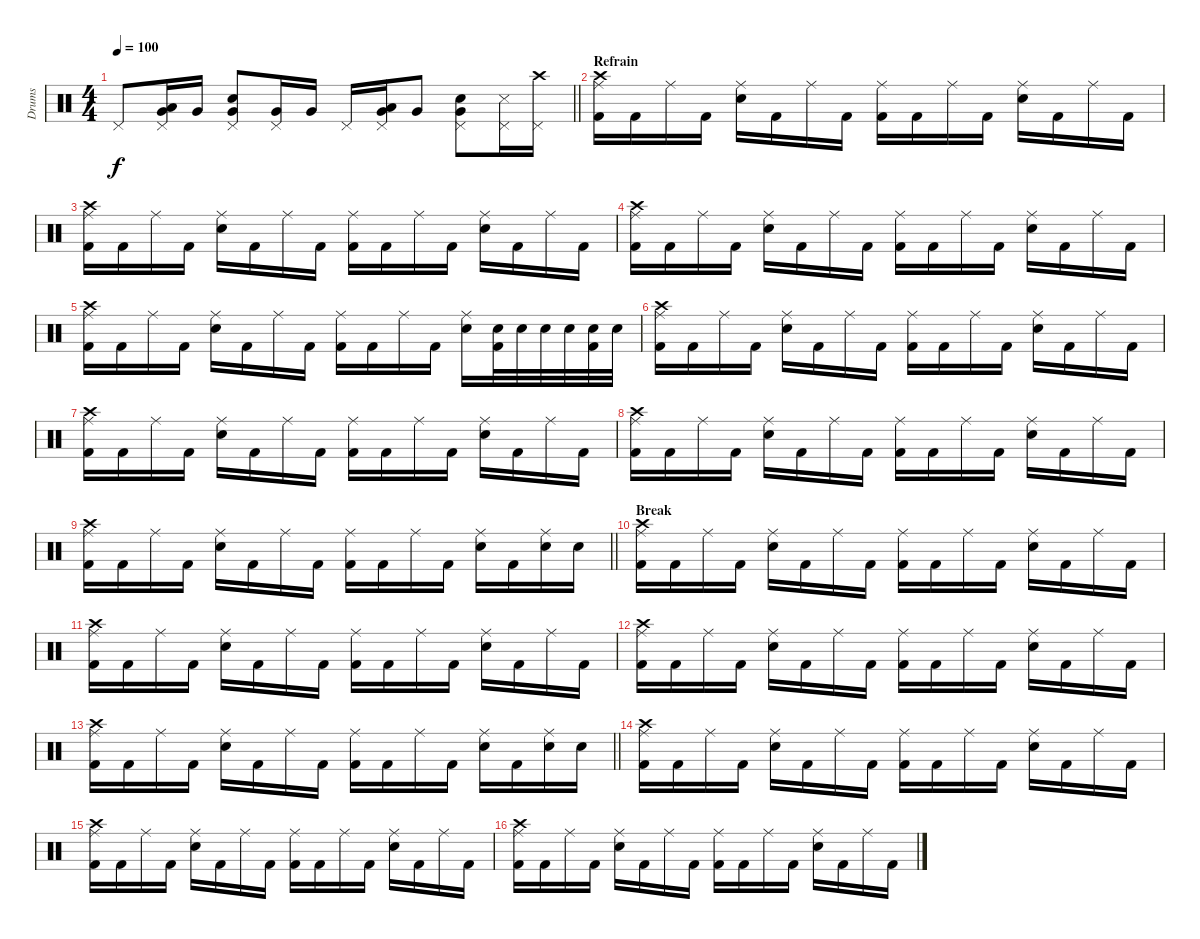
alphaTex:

\track ("Drums" "Drums") {instrument percussion}
\staff {score}
\articulation defaults
\ts (4 4)
\tempo 100
\clef neutral
\barLineRight lightlight
\ks c "Pedal Hi-Hat (hit)".8{dy f}
("Low Floor Tom (hit)" "Very Low Tom (hit)" "Pedal Hi-Hat (hit)").16 "Very Low Tom (hit)".16 ("Snare (hit) 2" "Very Low Tom (hit)" "Pedal Hi-Hat (hit)").8 ("Very Low Tom (hit)" "Pedal Hi-Hat (hit)").16 "Very Low Tom (hit)".16 "Pedal Hi-Hat (hit)".16 ("Low Floor Tom (hit)" "Very Low Tom (hit)" "Pedal Hi-Hat (hit)").16 "Very Low Tom (hit)".8 ("Snare (hit) 2" "Very Low Tom (hit)" "Pedal Hi-Hat (hit)").8 ("Snare (side stick) 3" "Pedal Hi-Hat (hit)").16 ("Crash high (hit)" "Pedal Hi-Hat (hit)").16 |
\section ("" "Refrain")
("Crash high (hit)" "Kick (hit) 2" "Ride (middle)").16 "Kick (hit) 2".16 "Ride (middle)".16 "Kick (hit) 2".16 ("Snare (hit) 2" "Ride (middle)").16 "Kick (hit) 2".16 "Ride (middle)".16 "Kick (hit) 2".16 ("Kick (hit) 2" "Ride (middle)").16 "Kick (hit) 2".16 "Ride (middle)".16 "Kick (hit) 2".16 ("Snare (hit) 2" "Ride (middle)").16 "Kick (hit) 2".16 "Ride (middle)".16 "Kick (hit) 2".16 |
("Crash high (hit)" "Kick (hit) 2" "Ride (middle)").16 "Kick (hit) 2".16 "Ride (middle)".16 "Kick (hit) 2".16 ("Snare (hit) 2" "Ride (middle)").16 "Kick (hit) 2".16 "Ride (middle)".16 "Kick (hit) 2".16 ("Kick (hit) 2" "Ride (middle)").16 "Kick (hit) 2".16 "Ride (middle)".16 "Kick (hit) 2".16 ("Snare (hit) 2" "Ride (middle)").16 "Kick (hit) 2".16 "Ride (middle)".16 "Kick (hit) 2".16 |
("Crash high (hit)" "Kick (hit) 2" "Ride (middle)").16 "Kick (hit) 2".16 "Ride (middle)".16 "Kick (hit) 2".16 ("Snare (hit) 2" "Ride (middle)").16 "Kick (hit) 2".16 "Ride (middle)".16 "Kick (hit) 2".16 ("Kick (hit) 2" "Ride (middle)").16 "Kick (hit) 2".16 "Ride (middle)".16 "Kick (hit) 2".16 ("Snare (hit) 2" "Ride (middle)").16 "Kick (hit) 2".16 "Ride (middle)".16 "Kick (hit) 2".16 |
("Crash high (hit)" "Kick (hit) 2" "Ride (middle)").16 "Kick (hit) 2".16 "Ride (middle)".16 "Kick (hit) 2".16 ("Snare (hit) 2" "Ride (middle)").16 "Kick (hit) 2".16 "Ride (middle)".16 "Kick (hit) 2".16 ("Kick (hit) 2" "Ride (middle)").16 "Kick (hit) 2".16 "Ride (middle)".16 "Kick (hit) 2".16 ("Snare (hit) 2" "Ride (middle)").16 ("Snare (hit) 2" "Kick (hit) 2").32 "Snare (hit) 2".32 "Snare (hit) 2".32 "Snare (hit) 2".32 ("Snare (hit) 2" "Kick (hit) 2").32 "Snare (hit) 2".32 |
("Crash high (hit)" "Kick (hit) 2" "Ride (middle)").16 "Kick (hit) 2".16 "Ride (middle)".16 "Kick (hit) 2".16 ("Snare (hit) 2" "Ride (middle)").16 "Kick (hit) 2".16 "Ride (middle)".16 "Kick (hit) 2".16 ("Kick (hit) 2" "Ride (middle)").16 "Kick (hit) 2".16 "Ride (middle)".16 "Kick (hit) 2".16 ("Snare (hit) 2" "Ride (middle)").16 "Kick (hit) 2".16 "Ride (middle)".16 "Kick (hit) 2".16 |
("Crash high (hit)" "Kick (hit) 2" "Ride (middle)").16 "Kick (hit) 2".16 "Ride (middle)".16 "Kick (hit) 2".16 ("Snare (hit) 2" "Ride (middle)").16 "Kick (hit) 2".16 "Ride (middle)".16 "Kick (hit) 2".16 ("Kick (hit) 2" "Ride (middle)").16 "Kick (hit) 2".16 "Ride (middle)".16 "Kick (hit) 2".16 ("Snare (hit) 2" "Ride (middle)").16 "Kick (hit) 2".16 "Ride (middle)".16 "Kick (hit) 2".16 |
("Crash high (hit)" "Kick (hit) 2" "Ride (middle)").16 "Kick (hit) 2".16 "Ride (middle)".16 "Kick (hit) 2".16 ("Snare (hit) 2" "Ride (middle)").16 "Kick (hit) 2".16 "Ride (middle)".16 "Kick (hit) 2".16 ("Kick (hit) 2" "Ride (middle)").16 "Kick (hit) 2".16 "Ride (middle)".16 "Kick (hit) 2".16 ("Snare (hit) 2" "Ride (middle)").16 "Kick (hit) 2".16 "Ride (middle)".16 "Kick (hit) 2".16 |
\barLineRight lightlight
("Crash high (hit)" "Kick (hit) 2" "Ride (middle)").16 "Kick (hit) 2".16 "Ride (middle)".16 "Kick (hit) 2".16 ("Snare (hit) 2" "Ride (middle)").16 "Kick (hit) 2".16 "Ride (middle)".16 "Kick (hit) 2".16 ("Kick (hit) 2" "Ride (middle)").16 "Kick (hit) 2".16 "Ride (middle)".16 "Kick (hit) 2".16 ("Snare (hit) 2" "Ride (middle)").16 "Kick (hit) 2".16 ("Snare (hit) 2" "Ride (middle)").16 "Snare (hit) 2".16 |
\section ("" "Break")
("Crash high (hit)" "Kick (hit) 2" "Ride (middle)").16 "Kick (hit) 2".16 "Ride (middle)".16 "Kick (hit) 2".16 ("Snare (hit) 2" "Ride (middle)").16 "Kick (hit) 2".16 "Ride (middle)".16 "Kick (hit) 2".16 ("Kick (hit) 2" "Ride (middle)").16 "Kick (hit) 2".16 "Ride (middle)".16 "Kick (hit) 2".16 ("Snare (hit) 2" "Ride (middle)").16 "Kick (hit) 2".16 "Ride (middle)".16 "Kick (hit) 2".16 |
("Crash high (hit)" "Kick (hit) 2" "Ride (middle)").16 "Kick (hit) 2".16 "Ride (middle)".16 "Kick (hit) 2".16 ("Snare (hit) 2" "Ride (middle)").16 "Kick (hit) 2".16 "Ride (middle)".16 "Kick (hit) 2".16 ("Kick (hit) 2" "Ride (middle)").16 "Kick (hit) 2".16 "Ride (middle)".16 "Kick (hit) 2".16 ("Snare (hit) 2" "Ride (middle)").16 "Kick (hit) 2".16 "Ride (middle)".16 "Kick (hit) 2".16 |
("Crash high (hit)" "Kick (hit) 2" "Ride (middle)").16 "Kick (hit) 2".16 "Ride (middle)".16 "Kick (hit) 2".16 ("Snare (hit) 2" "Ride (middle)").16 "Kick (hit) 2".16 "Ride (middle)".16 "Kick (hit) 2".16 ("Kick (hit) 2" "Ride (middle)").16 "Kick (hit) 2".16 "Ride (middle)".16 "Kick (hit) 2".16 ("Snare (hit) 2" "Ride (middle)").16 "Kick (hit) 2".16 "Ride (middle)".16 "Kick (hit) 2".16 |
\barLineRight lightlight
("Crash high (hit)" "Kick (hit) 2" "Ride (middle)").16 "Kick (hit) 2".16 "Ride (middle)".16 "Kick (hit) 2".16 ("Snare (hit) 2" "Ride (middle)").16 "Kick (hit) 2".16 "Ride (middle)".16 "Kick (hit) 2".16 ("Kick (hit) 2" "Ride (middle)").16 "Kick (hit) 2".16 "Ride (middle)".16 "Kick (hit) 2".16 ("Snare (hit) 2" "Ride (middle)").16 "Kick (hit) 2".16 ("Snare (hit) 2" "Ride (middle)").16 "Snare (hit) 2".16 |
("Crash high (hit)" "Kick (hit) 2" "Ride (middle)").16 "Kick (hit) 2".16 "Ride (middle)".16 "Kick (hit) 2".16 ("Snare (hit) 2" "Ride (middle)").16 "Kick (hit) 2".16 "Ride (middle)".16 "Kick (hit) 2".16 ("Kick (hit) 2" "Ride (middle)").16 "Kick (hit) 2".16 "Ride (middle)".16 "Kick (hit) 2".16 ("Snare (hit) 2" "Ride (middle)").16 "Kick (hit) 2".16 "Ride (middle)".16 "Kick (hit) 2".16 |
("Crash high (hit)" "Kick (hit) 2" "Ride (middle)").16 "Kick (hit) 2".16 "Ride (middle)".16 "Kick (hit) 2".16 ("Snare (hit) 2" "Ride (middle)").16 "Kick (hit) 2".16 "Ride (middle)".16 "Kick (hit) 2".16 ("Kick (hit) 2" "Ride (middle)").16 "Kick (hit) 2".16 "Ride (middle)".16 "Kick (hit) 2".16 ("Snare (hit) 2" "Ride (middle)").16 "Kick (hit) 2".16 "Ride (middle)".16 "Kick (hit) 2".16 |
("Crash high (hit)" "Kick (hit) 2" "Ride (middle)").16 "Kick (hit) 2".16 "Ride (middle)".16 "Kick (hit) 2".16 ("Snare (hit) 2" "Ride (middle)").16 "Kick (hit) 2".16 "Ride (middle)".16 "Kick (hit) 2".16 ("Kick (hit) 2" "Ride (middle)").16 "Kick (hit) 2".16 "Ride (middle)".16 "Kick (hit) 2".16 ("Snare (hit) 2" "Ride (middle)").16 "Kick (hit) 2".16 "Ride (middle)".16 "Kick (hit) 2".16
